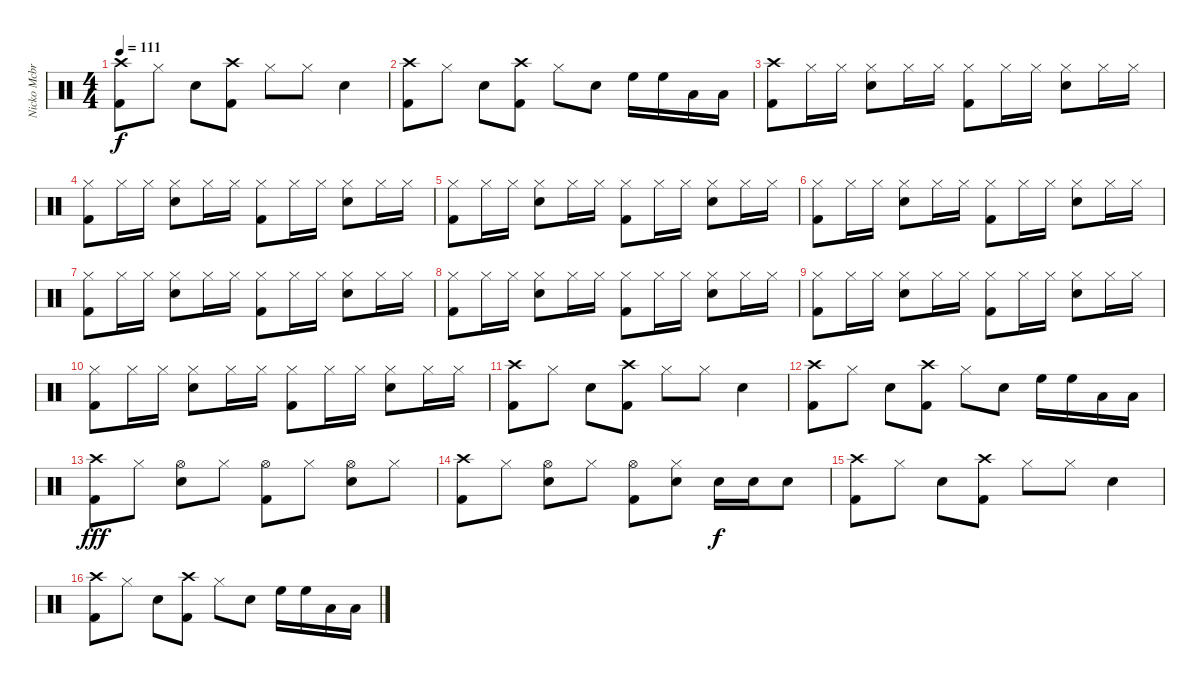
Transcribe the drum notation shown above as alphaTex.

\track ("Nicko Mcbrain" "Nicko Mcbr") {instrument percussion}
\staff {score}
\articulation defaults
\ts (4 4)
\tempo 111
\clef neutral
\ks c
("Crash high (hit)" "Kick (hit) 2").8{dy f} "Hi-Hat (closed)".8 "Snare (hit) 2".8 ("Crash high (hit)" "Kick (hit) 2").8 "Hi-Hat (closed)".8 "Hi-Hat (closed)".8 "Snare (hit) 2".4 |
("Crash high (hit)" "Kick (hit) 2").8 "Hi-Hat (closed)".8 "Snare (hit) 2".8 ("Crash high (hit)" "Kick (hit) 2").8 "Hi-Hat (closed)".8 "Snare (hit) 2".8 "High Floor Tom (hit)".16 "High Floor Tom (hit)".16 "Low Tom (hit)".16 "Low Tom (hit)".16 |
("Crash high (hit)" "Kick (hit) 2").8 "Hi-Hat (closed)".16 "Hi-Hat (closed)".16 ("Hi-Hat (closed)" "Snare (hit) 2").8 "Hi-Hat (closed)".16 "Hi-Hat (closed)".16 ("Hi-Hat (closed)" "Kick (hit) 2").8 "Hi-Hat (closed)".16 "Hi-Hat (closed)".16 ("Hi-Hat (closed)" "Snare (hit) 2").8 "Hi-Hat (closed)".16 "Hi-Hat (closed)".16 |
("Hi-Hat (closed)" "Kick (hit) 2").8 "Hi-Hat (closed)".16 "Hi-Hat (closed)".16 ("Hi-Hat (closed)" "Snare (hit) 2").8 "Hi-Hat (closed)".16 "Hi-Hat (closed)".16 ("Hi-Hat (closed)" "Kick (hit) 2").8 "Hi-Hat (closed)".16 "Hi-Hat (closed)".16 ("Hi-Hat (closed)" "Snare (hit) 2").8 "Hi-Hat (closed)".16 "Hi-Hat (closed)".16 |
("Hi-Hat (closed)" "Kick (hit) 2").8 "Hi-Hat (closed)".16 "Hi-Hat (closed)".16 ("Hi-Hat (closed)" "Snare (hit) 2").8 "Hi-Hat (closed)".16 "Hi-Hat (closed)".16 ("Hi-Hat (closed)" "Kick (hit) 2").8 "Hi-Hat (closed)".16 "Hi-Hat (closed)".16 ("Hi-Hat (closed)" "Snare (hit) 2").8 "Hi-Hat (closed)".16 "Hi-Hat (closed)".16 |
("Hi-Hat (closed)" "Kick (hit) 2").8 "Hi-Hat (closed)".16 "Hi-Hat (closed)".16 ("Hi-Hat (closed)" "Snare (hit) 2").8 "Hi-Hat (closed)".16 "Hi-Hat (closed)".16 ("Hi-Hat (closed)" "Kick (hit) 2").8 "Hi-Hat (closed)".16 "Hi-Hat (closed)".16 ("Hi-Hat (closed)" "Snare (hit) 2").8 "Hi-Hat (closed)".16 "Hi-Hat (closed)".16 |
("Hi-Hat (closed)" "Kick (hit) 2").8 "Hi-Hat (closed)".16 "Hi-Hat (closed)".16 ("Hi-Hat (closed)" "Snare (hit) 2").8 "Hi-Hat (closed)".16 "Hi-Hat (closed)".16 ("Hi-Hat (closed)" "Kick (hit) 2").8 "Hi-Hat (closed)".16 "Hi-Hat (closed)".16 ("Hi-Hat (closed)" "Snare (hit) 2").8 "Hi-Hat (closed)".16 "Hi-Hat (closed)".16 |
("Hi-Hat (closed)" "Kick (hit) 2").8 "Hi-Hat (closed)".16 "Hi-Hat (closed)".16 ("Hi-Hat (closed)" "Snare (hit) 2").8 "Hi-Hat (closed)".16 "Hi-Hat (closed)".16 ("Hi-Hat (closed)" "Kick (hit) 2").8 "Hi-Hat (closed)".16 "Hi-Hat (closed)".16 ("Hi-Hat (closed)" "Snare (hit) 2").8 "Hi-Hat (closed)".16 "Hi-Hat (closed)".16 |
("Hi-Hat (closed)" "Kick (hit) 2").8 "Hi-Hat (closed)".16 "Hi-Hat (closed)".16 ("Hi-Hat (closed)" "Snare (hit) 2").8 "Hi-Hat (closed)".16 "Hi-Hat (closed)".16 ("Hi-Hat (closed)" "Kick (hit) 2").8 "Hi-Hat (closed)".16 "Hi-Hat (closed)".16 ("Hi-Hat (closed)" "Snare (hit) 2").8 "Hi-Hat (closed)".16 "Hi-Hat (closed)".16 |
("Hi-Hat (closed)" "Kick (hit) 2").8 "Hi-Hat (closed)".16 "Hi-Hat (closed)".16 ("Hi-Hat (closed)" "Snare (hit) 2").8 "Hi-Hat (closed)".16 "Hi-Hat (closed)".16 ("Hi-Hat (closed)" "Kick (hit) 2").8 "Hi-Hat (closed)".16 "Hi-Hat (closed)".16 ("Hi-Hat (closed)" "Snare (hit) 2").8 "Hi-Hat (closed)".16 "Hi-Hat (closed)".16 |
("Crash high (hit)" "Kick (hit) 2").8 "Hi-Hat (closed)".8 "Snare (hit) 2".8 ("Crash high (hit)" "Kick (hit) 2").8 "Hi-Hat (closed)".8 "Hi-Hat (closed)".8 "Snare (hit) 2".4 |
("Crash high (hit)" "Kick (hit) 2").8 "Hi-Hat (closed)".8 "Snare (hit) 2".8 ("Crash high (hit)" "Kick (hit) 2").8 "Hi-Hat (closed)".8 "Snare (hit) 2".8 "High Floor Tom (hit)".16 "High Floor Tom (hit)".16 "Low Tom (hit)".16 "Low Tom (hit)".16 |
("Crash high (hit)" "Kick (hit) 2").8{dy fff} "Hi-Hat (closed)".8 ("Hi-Hat (open)" "Snare (hit) 2").8 "Hi-Hat (closed)".8 ("Hi-Hat (open)" "Kick (hit) 2").8 "Hi-Hat (closed)".8 ("Hi-Hat (open)" "Snare (hit) 2").8 "Hi-Hat (closed)".8 |
("Crash high (hit)" "Kick (hit) 2").8 "Hi-Hat (closed)".8 ("Hi-Hat (open)" "Snare (hit) 2").8 "Hi-Hat (closed)".8 ("Hi-Hat (open)" "Kick (hit) 2").8 ("Hi-Hat (closed)" "Snare (hit) 2").8 "Snare (hit) 2".16{dy f} "Snare (hit) 2".16 "Snare (hit) 2".8 |
("Crash high (hit)" "Kick (hit) 2").8 "Hi-Hat (closed)".8 "Snare (hit) 2".8 ("Crash high (hit)" "Kick (hit) 2").8 "Hi-Hat (closed)".8 "Hi-Hat (closed)".8 "Snare (hit) 2".4 |
("Crash high (hit)" "Kick (hit) 2").8 "Hi-Hat (closed)".8 "Snare (hit) 2".8 ("Crash high (hit)" "Kick (hit) 2").8 "Hi-Hat (closed)".8 "Snare (hit) 2".8 "High Floor Tom (hit)".16 "High Floor Tom (hit)".16 "Low Tom (hit)".16 "Low Tom (hit)".16
